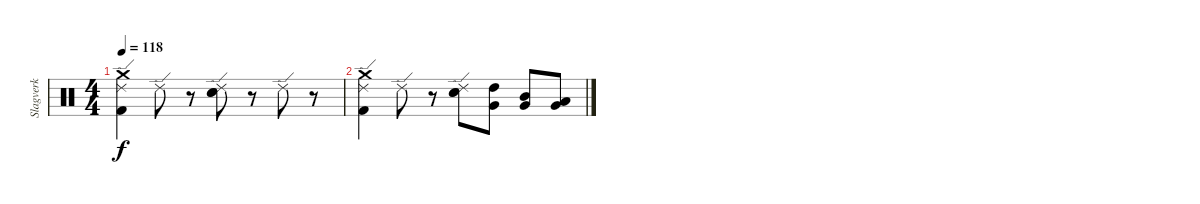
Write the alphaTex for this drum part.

\track ("Slagverk" "Slagverk") {instrument percussion}
\staff {score}
\articulation defaults
\ts (4 4)
\tempo 118
\clef neutral
\ks c
("Crash medium (hit)" "Kick (hit) 2" "Ride (edge) 2").4{dy f} "Ride (edge) 2".8{volume 1} r.8 ("Electric Snare (hit)" "Snare (hit) 2" "Ride (edge) 2").8{volume 0} r.8 "Ride (edge) 2".8 r.8 |
("Crash medium (hit)" "Kick (hit) 2" "Ride (edge) 2").4{volume 0} "Ride (edge) 2".8{volume 0} r.8 ("Electric Snare (hit)" "Snare (hit) 2" "Ride (edge) 2").8 ("Very Low Tom (hit)" "High Tom (hit)").8{volume 0} ("Mid Tom (hit)" "Very Low Tom (hit)").8 ("Low Tom (hit)" "Very Low Tom (hit)").8
